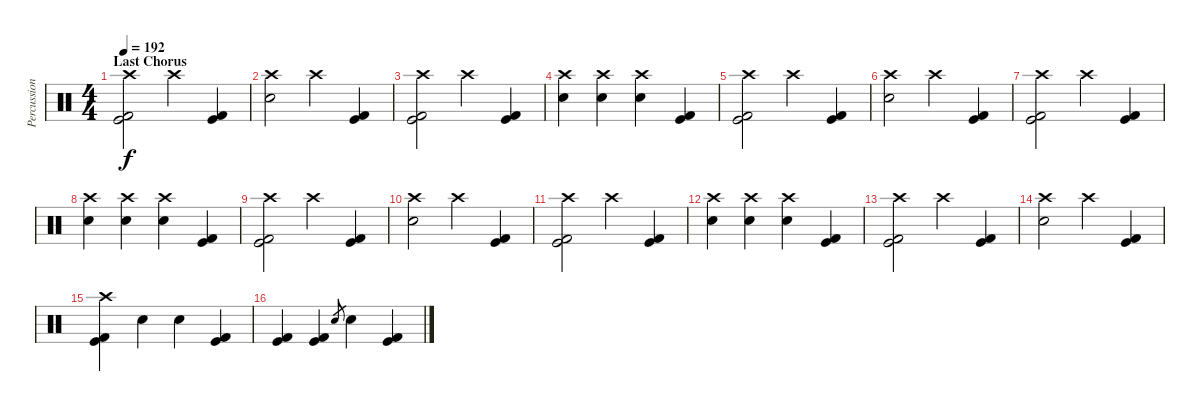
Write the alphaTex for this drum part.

\track ("Percussion" "Percussion") {instrument percussion}
\staff {score}
\articulation defaults
\ts (4 4)
\section ("" "Last Chorus")
\tempo 190
\tempo 192
\clef neutral
\ks c
("Crash high (hit)" "Kick (hit)" "Kick (hit) 2").2{dy f} "Crash high (hit)".4 ("Kick (hit)" "Kick (hit) 2").4 |
("Crash high (hit)" "Electric Snare (hit)").2 "Crash high (hit)".4 ("Kick (hit)" "Kick (hit) 2").4 |
("Crash high (hit)" "Kick (hit)" "Kick (hit) 2").2 "Crash high (hit)".4 ("Kick (hit)" "Kick (hit) 2").4 |
("Crash high (hit)" "Electric Snare (hit)").4 ("Crash high (hit)" "Electric Snare (hit)").4 ("Crash high (hit)" "Electric Snare (hit)").4 ("Kick (hit)" "Kick (hit) 2").4 |
("Crash high (hit)" "Kick (hit)" "Kick (hit) 2").2 "Crash high (hit)".4 ("Kick (hit)" "Kick (hit) 2").4 |
("Crash high (hit)" "Electric Snare (hit)").2 "Crash high (hit)".4 ("Kick (hit)" "Kick (hit) 2").4 |
("Crash high (hit)" "Kick (hit)" "Kick (hit) 2").2 "Crash high (hit)".4 ("Kick (hit)" "Kick (hit) 2").4 |
("Crash high (hit)" "Electric Snare (hit)").4 ("Crash high (hit)" "Electric Snare (hit)").4 ("Crash high (hit)" "Electric Snare (hit)").4 ("Kick (hit)" "Kick (hit) 2").4 |
("Crash high (hit)" "Kick (hit)" "Kick (hit) 2").2 "Crash high (hit)".4 ("Kick (hit)" "Kick (hit) 2").4 |
("Crash high (hit)" "Electric Snare (hit)").2 "Crash high (hit)".4 ("Kick (hit)" "Kick (hit) 2").4 |
("Crash high (hit)" "Kick (hit)" "Kick (hit) 2").2 "Crash high (hit)".4 ("Kick (hit)" "Kick (hit) 2").4 |
("Crash high (hit)" "Electric Snare (hit)").4 ("Crash high (hit)" "Electric Snare (hit)").4 ("Crash high (hit)" "Electric Snare (hit)").4 ("Kick (hit)" "Kick (hit) 2").4 |
("Crash high (hit)" "Kick (hit)" "Kick (hit) 2").2 "Crash high (hit)".4 ("Kick (hit)" "Kick (hit) 2").4 |
("Crash high (hit)" "Electric Snare (hit)").2 "Crash high (hit)".4 ("Kick (hit)" "Kick (hit) 2").4 |
("Crash high (hit)" "Kick (hit)" "Kick (hit) 2").4 "Electric Snare (hit)".4 "Electric Snare (hit)".4 ("Kick (hit)" "Kick (hit) 2").4 |
("Kick (hit)" "Kick (hit) 2").4 ("Kick (hit)" "Kick (hit) 2").4 "Electric Snare (hit)".8{gr} "Electric Snare (hit)".4 ("Kick (hit)" "Kick (hit) 2").4
